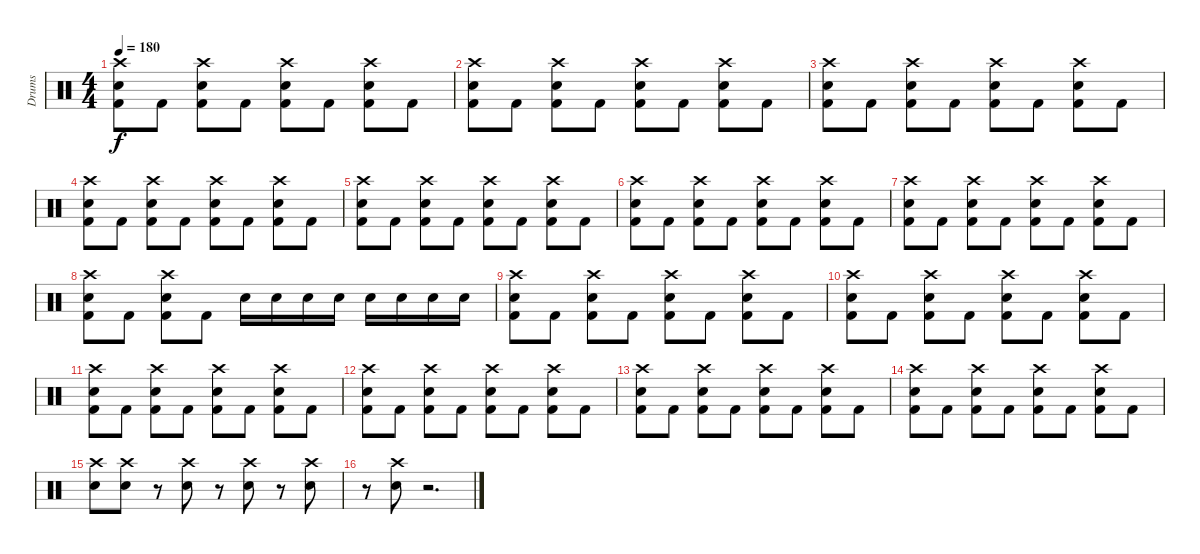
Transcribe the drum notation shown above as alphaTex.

\track ("Drums" "Drums") {instrument percussion}
\staff {score}
\articulation defaults
\ts (4 4)
\tempo 180
\clef neutral
\ks c
("Snare (hit) 2" "Kick (hit) 2" "Crash high (hit)").8{dy f} "Kick (hit) 2".8 ("Snare (hit) 2" "Kick (hit) 2" "Crash high (hit)").8 "Kick (hit) 2".8 ("Snare (hit) 2" "Kick (hit) 2" "Crash high (hit)").8 "Kick (hit) 2".8 ("Snare (hit) 2" "Kick (hit) 2" "Crash high (hit)").8 "Kick (hit) 2".8 |
("Snare (hit) 2" "Kick (hit) 2" "Crash high (hit)").8 "Kick (hit) 2".8 ("Snare (hit) 2" "Kick (hit) 2" "Crash high (hit)").8 "Kick (hit) 2".8 ("Snare (hit) 2" "Kick (hit) 2" "Crash high (hit)").8 "Kick (hit) 2".8 ("Snare (hit) 2" "Kick (hit) 2" "Crash high (hit)").8 "Kick (hit) 2".8 |
("Snare (hit) 2" "Kick (hit) 2" "Crash high (hit)").8 "Kick (hit) 2".8 ("Snare (hit) 2" "Kick (hit) 2" "Crash high (hit)").8 "Kick (hit) 2".8 ("Snare (hit) 2" "Kick (hit) 2" "Crash high (hit)").8 "Kick (hit) 2".8 ("Snare (hit) 2" "Kick (hit) 2" "Crash high (hit)").8 "Kick (hit) 2".8 |
("Snare (hit) 2" "Kick (hit) 2" "Crash high (hit)").8 "Kick (hit) 2".8 ("Snare (hit) 2" "Kick (hit) 2" "Crash high (hit)").8 "Kick (hit) 2".8 ("Snare (hit) 2" "Kick (hit) 2" "Crash high (hit)").8 "Kick (hit) 2".8 ("Snare (hit) 2" "Kick (hit) 2" "Crash high (hit)").8 "Kick (hit) 2".8 |
("Snare (hit) 2" "Kick (hit) 2" "Crash high (hit)").8 "Kick (hit) 2".8 ("Snare (hit) 2" "Kick (hit) 2" "Crash high (hit)").8 "Kick (hit) 2".8 ("Snare (hit) 2" "Kick (hit) 2" "Crash high (hit)").8 "Kick (hit) 2".8 ("Snare (hit) 2" "Kick (hit) 2" "Crash high (hit)").8 "Kick (hit) 2".8 |
("Snare (hit) 2" "Kick (hit) 2" "Crash high (hit)").8 "Kick (hit) 2".8 ("Snare (hit) 2" "Kick (hit) 2" "Crash high (hit)").8 "Kick (hit) 2".8 ("Snare (hit) 2" "Kick (hit) 2" "Crash high (hit)").8 "Kick (hit) 2".8 ("Snare (hit) 2" "Kick (hit) 2" "Crash high (hit)").8 "Kick (hit) 2".8 |
("Snare (hit) 2" "Kick (hit) 2" "Crash high (hit)").8 "Kick (hit) 2".8 ("Snare (hit) 2" "Kick (hit) 2" "Crash high (hit)").8 "Kick (hit) 2".8 ("Snare (hit) 2" "Kick (hit) 2" "Crash high (hit)").8 "Kick (hit) 2".8 ("Snare (hit) 2" "Kick (hit) 2" "Crash high (hit)").8 "Kick (hit) 2".8 |
("Snare (hit) 2" "Kick (hit) 2" "Crash high (hit)").8 "Kick (hit) 2".8 ("Snare (hit) 2" "Kick (hit) 2" "Crash high (hit)").8 "Kick (hit) 2".8 "Snare (hit) 2".16 "Snare (hit) 2".16 "Snare (hit) 2".16 "Snare (hit) 2".16 "Snare (hit) 2".16 "Snare (hit) 2".16 "Snare (hit) 2".16 "Snare (hit) 2".16 |
("Snare (hit) 2" "Kick (hit) 2" "Crash high (hit)").8 "Kick (hit) 2".8 ("Snare (hit) 2" "Kick (hit) 2" "Crash high (hit)").8 "Kick (hit) 2".8 ("Snare (hit) 2" "Kick (hit) 2" "Crash high (hit)").8 "Kick (hit) 2".8 ("Snare (hit) 2" "Kick (hit) 2" "Crash high (hit)").8 "Kick (hit) 2".8 |
("Snare (hit) 2" "Kick (hit) 2" "Crash high (hit)").8 "Kick (hit) 2".8 ("Snare (hit) 2" "Kick (hit) 2" "Crash high (hit)").8 "Kick (hit) 2".8 ("Snare (hit) 2" "Kick (hit) 2" "Crash high (hit)").8 "Kick (hit) 2".8 ("Snare (hit) 2" "Kick (hit) 2" "Crash high (hit)").8 "Kick (hit) 2".8 |
("Snare (hit) 2" "Kick (hit) 2" "Crash high (hit)").8 "Kick (hit) 2".8 ("Snare (hit) 2" "Kick (hit) 2" "Crash high (hit)").8 "Kick (hit) 2".8 ("Snare (hit) 2" "Kick (hit) 2" "Crash high (hit)").8 "Kick (hit) 2".8 ("Snare (hit) 2" "Kick (hit) 2" "Crash high (hit)").8 "Kick (hit) 2".8 |
("Snare (hit) 2" "Kick (hit) 2" "Crash high (hit)").8 "Kick (hit) 2".8 ("Snare (hit) 2" "Kick (hit) 2" "Crash high (hit)").8 "Kick (hit) 2".8 ("Snare (hit) 2" "Kick (hit) 2" "Crash high (hit)").8 "Kick (hit) 2".8 ("Snare (hit) 2" "Kick (hit) 2" "Crash high (hit)").8 "Kick (hit) 2".8 |
("Snare (hit) 2" "Kick (hit) 2" "Crash high (hit)").8 "Kick (hit) 2".8 ("Snare (hit) 2" "Kick (hit) 2" "Crash high (hit)").8 "Kick (hit) 2".8 ("Snare (hit) 2" "Kick (hit) 2" "Crash high (hit)").8 "Kick (hit) 2".8 ("Snare (hit) 2" "Kick (hit) 2" "Crash high (hit)").8 "Kick (hit) 2".8 |
("Snare (hit) 2" "Kick (hit) 2" "Crash high (hit)").8 "Kick (hit) 2".8 ("Snare (hit) 2" "Kick (hit) 2" "Crash high (hit)").8 "Kick (hit) 2".8 ("Snare (hit) 2" "Kick (hit) 2" "Crash high (hit)").8 "Kick (hit) 2".8 ("Snare (hit) 2" "Kick (hit) 2" "Crash high (hit)").8 "Kick (hit) 2".8 |
("Snare (hit) 2" "Crash high (hit)").8 ("Snare (hit) 2" "Crash high (hit)").8 r.8 ("Snare (hit) 2" "Crash high (hit)").8 r.8 ("Snare (hit) 2" "Crash high (hit)").8 r.8 ("Snare (hit) 2" "Crash high (hit)").8 |
r.8 ("Snare (hit) 2" "Crash high (hit)").8 r.2{d}
